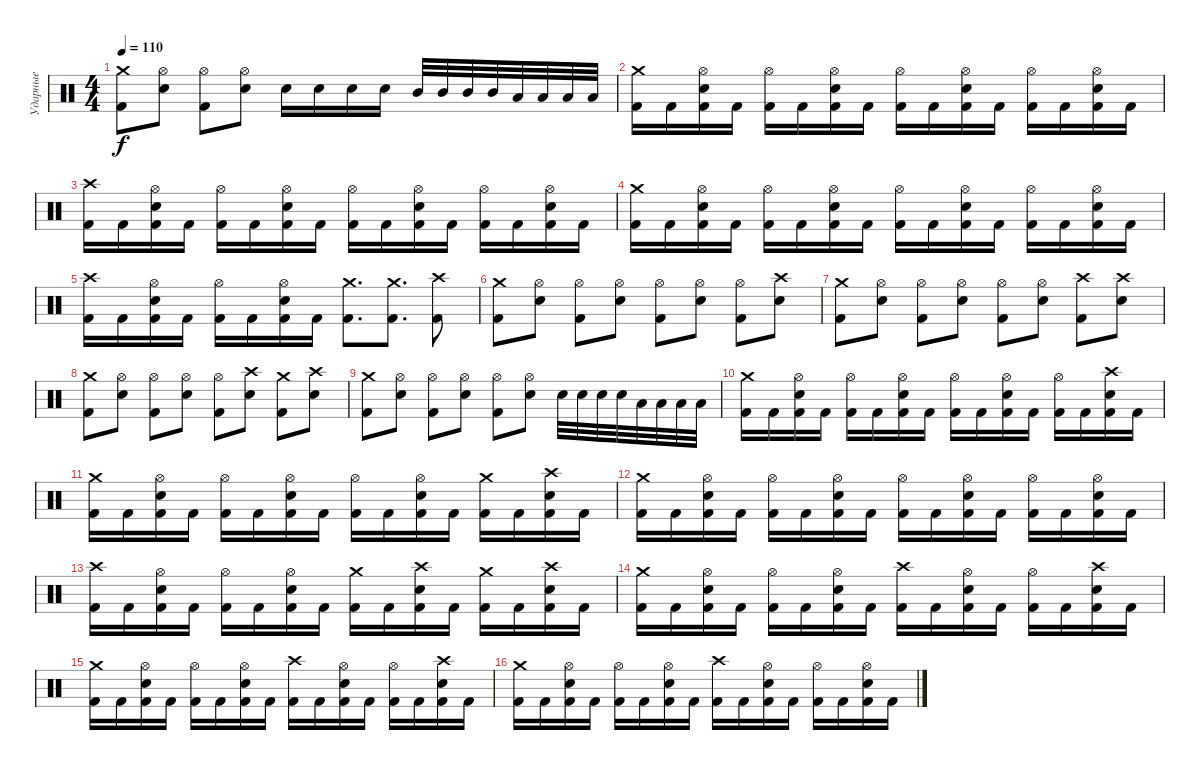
\track ("Ударные" "Ударные") {instrument percussion}
\staff {score}
\articulation defaults
\ts (4 4)
\tempo 110
\clef neutral
\ks c
("Crash medium (hit)" "Kick (hit) 2").8{dy f} ("Hi-Hat (open)" "Electric Snare (hit)").8 ("Hi-Hat (open)" "Kick (hit) 2").8 ("Hi-Hat (open)" "Electric Snare (hit)").8 "Electric Snare (hit)".16 "Electric Snare (hit)".16 "Electric Snare (hit)".16 "Electric Snare (hit)".16 "Mid Tom (hit)".32 "Mid Tom (hit)".32 "Mid Tom (hit)".32 "Mid Tom (hit)".32 "Low Tom (hit)".32 "Low Tom (hit)".32 "Low Tom (hit)".32 "Low Tom (hit)".32 |
("Crash medium (hit)" "Kick (hit) 2").16 "Kick (hit) 2".16 ("Hi-Hat (open)" "Electric Snare (hit)" "Kick (hit) 2").16 "Kick (hit) 2".16 ("Hi-Hat (open)" "Kick (hit) 2").16 "Kick (hit) 2".16 ("Hi-Hat (open)" "Electric Snare (hit)" "Kick (hit) 2").16 "Kick (hit) 2".16 ("Hi-Hat (open)" "Kick (hit) 2").16 "Kick (hit) 2".16 ("Hi-Hat (open)" "Electric Snare (hit)" "Kick (hit) 2").16 "Kick (hit) 2".16 ("Hi-Hat (open)" "Kick (hit) 2").16 "Kick (hit) 2".16 ("Hi-Hat (open)" "Electric Snare (hit)" "Kick (hit) 2").16 "Kick (hit) 2".16 |
("Crash high (hit)" "Kick (hit) 2").16 "Kick (hit) 2".16 ("Hi-Hat (open)" "Electric Snare (hit)" "Kick (hit) 2").16 "Kick (hit) 2".16 ("Hi-Hat (open)" "Kick (hit) 2").16 "Kick (hit) 2".16 ("Hi-Hat (open)" "Electric Snare (hit)" "Kick (hit) 2").16 "Kick (hit) 2".16 ("Hi-Hat (open)" "Kick (hit) 2").16 "Kick (hit) 2".16 ("Hi-Hat (open)" "Electric Snare (hit)" "Kick (hit) 2").16 "Kick (hit) 2".16 ("Hi-Hat (open)" "Kick (hit) 2").16 "Kick (hit) 2".16 ("Hi-Hat (open)" "Electric Snare (hit)" "Kick (hit) 2").16 "Kick (hit) 2".16 |
("Crash medium (hit)" "Kick (hit) 2").16 "Kick (hit) 2".16 ("Hi-Hat (open)" "Electric Snare (hit)" "Kick (hit) 2").16 "Kick (hit) 2".16 ("Hi-Hat (open)" "Kick (hit) 2").16 "Kick (hit) 2".16 ("Hi-Hat (open)" "Electric Snare (hit)" "Kick (hit) 2").16 "Kick (hit) 2".16 ("Hi-Hat (open)" "Kick (hit) 2").16 "Kick (hit) 2".16 ("Hi-Hat (open)" "Electric Snare (hit)" "Kick (hit) 2").16 "Kick (hit) 2".16 ("Hi-Hat (open)" "Kick (hit) 2").16 "Kick (hit) 2".16 ("Hi-Hat (open)" "Electric Snare (hit)" "Kick (hit) 2").16 "Kick (hit) 2".16 |
("Crash high (hit)" "Kick (hit) 2").16 "Kick (hit) 2".16 ("Hi-Hat (open)" "Electric Snare (hit)" "Kick (hit) 2").16 "Kick (hit) 2".16 ("Hi-Hat (open)" "Kick (hit) 2").16 "Kick (hit) 2".16 ("Hi-Hat (open)" "Electric Snare (hit)" "Kick (hit) 2").16 "Kick (hit) 2".16 ("Crash medium (hit)" "Kick (hit) 2").8{d} ("Crash medium (hit)" "Kick (hit) 2").8{d} ("Crash high (hit)" "Kick (hit) 2").8 |
("Crash medium (hit)" "Kick (hit) 2").8 ("Hi-Hat (open)" "Electric Snare (hit)").8 ("Hi-Hat (open)" "Kick (hit) 2").8 ("Hi-Hat (open)" "Electric Snare (hit)").8 ("Hi-Hat (open)" "Kick (hit) 2").8 ("Hi-Hat (open)" "Electric Snare (hit)").8 ("Hi-Hat (open)" "Kick (hit) 2").8 ("Crash high (hit)" "Electric Snare (hit)").8 |
("Crash medium (hit)" "Kick (hit) 2").8 ("Hi-Hat (open)" "Electric Snare (hit)").8 ("Hi-Hat (open)" "Kick (hit) 2").8 ("Hi-Hat (open)" "Electric Snare (hit)").8 ("Hi-Hat (open)" "Kick (hit) 2").8 ("Hi-Hat (open)" "Electric Snare (hit)").8 ("Crash high (hit)" "Kick (hit) 2").8 ("Crash high (hit)" "Electric Snare (hit)").8 |
("Crash medium (hit)" "Kick (hit) 2").8 ("Hi-Hat (open)" "Electric Snare (hit)").8 ("Hi-Hat (open)" "Kick (hit) 2").8 ("Hi-Hat (open)" "Electric Snare (hit)").8 ("Hi-Hat (open)" "Kick (hit) 2").8 ("Crash high (hit)" "Electric Snare (hit)").8 ("Crash medium (hit)" "Kick (hit) 2").8 ("Crash high (hit)" "Electric Snare (hit)").8 |
("Crash medium (hit)" "Kick (hit) 2").8 ("Hi-Hat (open)" "Electric Snare (hit)").8 ("Hi-Hat (open)" "Kick (hit) 2").8 ("Hi-Hat (open)" "Electric Snare (hit)").8 ("Hi-Hat (open)" "Kick (hit) 2").8 ("Hi-Hat (open)" "Electric Snare (hit)").8 "Electric Snare (hit)".32 "Electric Snare (hit)".32 "Electric Snare (hit)".32 "Electric Snare (hit)".32 "Low Tom (hit)".32 "Low Tom (hit)".32 "Low Tom (hit)".32 "Low Tom (hit)".32 |
("Crash medium (hit)" "Kick (hit) 2").16 "Kick (hit) 2".16 ("Hi-Hat (open)" "Electric Snare (hit)" "Kick (hit) 2").16 "Kick (hit) 2".16 ("Hi-Hat (open)" "Kick (hit) 2").16 "Kick (hit) 2".16 ("Hi-Hat (open)" "Electric Snare (hit)" "Kick (hit) 2").16 "Kick (hit) 2".16 ("Hi-Hat (open)" "Kick (hit) 2").16 "Kick (hit) 2".16 ("Hi-Hat (open)" "Electric Snare (hit)" "Kick (hit) 2").16 "Kick (hit) 2".16 ("Hi-Hat (open)" "Kick (hit) 2").16 "Kick (hit) 2".16 ("Crash high (hit)" "Electric Snare (hit)" "Kick (hit) 2").16 "Kick (hit) 2".16 |
("Crash medium (hit)" "Kick (hit) 2").16 "Kick (hit) 2".16 ("Hi-Hat (open)" "Electric Snare (hit)" "Kick (hit) 2").16 "Kick (hit) 2".16 ("Hi-Hat (open)" "Kick (hit) 2").16 "Kick (hit) 2".16 ("Hi-Hat (open)" "Electric Snare (hit)" "Kick (hit) 2").16 "Kick (hit) 2".16 ("Hi-Hat (open)" "Kick (hit) 2").16 "Kick (hit) 2".16 ("Hi-Hat (open)" "Electric Snare (hit)" "Kick (hit) 2").16 "Kick (hit) 2".16 ("Crash medium (hit)" "Kick (hit) 2").16 "Kick (hit) 2".16 ("Crash high (hit)" "Electric Snare (hit)" "Kick (hit) 2").16 "Kick (hit) 2".16 |
("Crash medium (hit)" "Kick (hit) 2").16 "Kick (hit) 2".16 ("Hi-Hat (open)" "Electric Snare (hit)" "Kick (hit) 2").16 "Kick (hit) 2".16 ("Hi-Hat (open)" "Kick (hit) 2").16 "Kick (hit) 2".16 ("Hi-Hat (open)" "Electric Snare (hit)" "Kick (hit) 2").16 "Kick (hit) 2".16 ("Hi-Hat (open)" "Kick (hit) 2").16 "Kick (hit) 2".16 ("Hi-Hat (open)" "Electric Snare (hit)" "Kick (hit) 2").16 "Kick (hit) 2".16 ("Hi-Hat (open)" "Kick (hit) 2").16 "Kick (hit) 2".16 ("Hi-Hat (open)" "Electric Snare (hit)" "Kick (hit) 2").16 "Kick (hit) 2".16 |
("Crash high (hit)" "Kick (hit) 2").16 "Kick (hit) 2".16 ("Hi-Hat (open)" "Electric Snare (hit)" "Kick (hit) 2").16 "Kick (hit) 2".16 ("Hi-Hat (open)" "Kick (hit) 2").16 "Kick (hit) 2".16 ("Hi-Hat (open)" "Electric Snare (hit)" "Kick (hit) 2").16 "Kick (hit) 2".16 ("Crash medium (hit)" "Kick (hit) 2").16 "Kick (hit) 2".16 ("Crash high (hit)" "Electric Snare (hit)" "Kick (hit) 2").16 "Kick (hit) 2".16 ("Crash medium (hit)" "Kick (hit) 2").16 "Kick (hit) 2".16 ("Crash high (hit)" "Electric Snare (hit)" "Kick (hit) 2").16 "Kick (hit) 2".16 |
("Crash medium (hit)" "Kick (hit) 2").16 "Kick (hit) 2".16 ("Hi-Hat (open)" "Electric Snare (hit)" "Kick (hit) 2").16 "Kick (hit) 2".16 ("Hi-Hat (open)" "Kick (hit) 2").16 "Kick (hit) 2".16 ("Hi-Hat (open)" "Electric Snare (hit)" "Kick (hit) 2").16 "Kick (hit) 2".16 ("Crash high (hit)" "Kick (hit) 2").16 "Kick (hit) 2".16 ("Hi-Hat (open)" "Electric Snare (hit)" "Kick (hit) 2").16 "Kick (hit) 2".16 ("Hi-Hat (open)" "Kick (hit) 2").16 "Kick (hit) 2".16 ("Crash high (hit)" "Electric Snare (hit)" "Kick (hit) 2").16 "Kick (hit) 2".16 |
("Crash medium (hit)" "Kick (hit) 2").16 "Kick (hit) 2".16 ("Hi-Hat (open)" "Electric Snare (hit)" "Kick (hit) 2").16 "Kick (hit) 2".16 ("Hi-Hat (open)" "Kick (hit) 2").16 "Kick (hit) 2".16 ("Hi-Hat (open)" "Electric Snare (hit)" "Kick (hit) 2").16 "Kick (hit) 2".16 ("Crash high (hit)" "Kick (hit) 2").16 "Kick (hit) 2".16 ("Hi-Hat (open)" "Electric Snare (hit)" "Kick (hit) 2").16 "Kick (hit) 2".16 ("Hi-Hat (open)" "Kick (hit) 2").16 "Kick (hit) 2".16 ("Crash high (hit)" "Electric Snare (hit)" "Kick (hit) 2").16 "Kick (hit) 2".16 |
("Crash medium (hit)" "Kick (hit) 2").16 "Kick (hit) 2".16 ("Hi-Hat (open)" "Electric Snare (hit)" "Kick (hit) 2").16 "Kick (hit) 2".16 ("Hi-Hat (open)" "Kick (hit) 2").16 "Kick (hit) 2".16 ("Hi-Hat (open)" "Electric Snare (hit)" "Kick (hit) 2").16 "Kick (hit) 2".16 ("Crash high (hit)" "Kick (hit) 2").16 "Kick (hit) 2".16 ("Hi-Hat (open)" "Electric Snare (hit)" "Kick (hit) 2").16 "Kick (hit) 2".16 ("Hi-Hat (open)" "Kick (hit) 2").16 "Kick (hit) 2".16 ("Hi-Hat (open)" "Electric Snare (hit)" "Kick (hit) 2").16 "Kick (hit) 2".16
